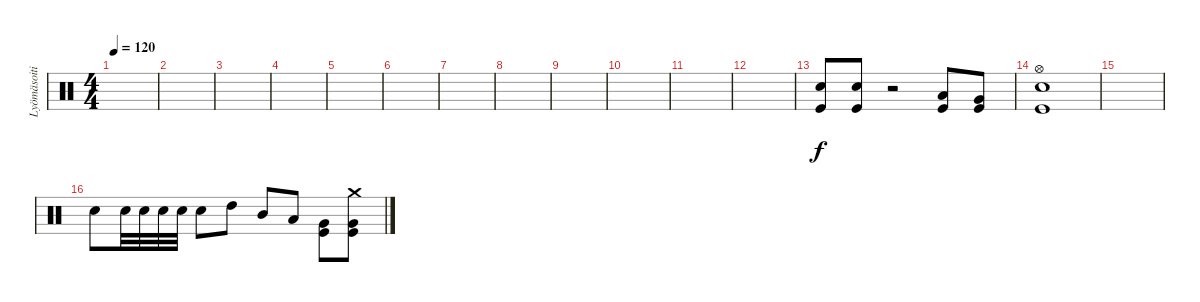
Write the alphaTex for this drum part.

\track ("Lyömäsoitin" "Lyömäsoiti") {instrument percussion}
\staff {score}
\articulation defaults
\ts (4 4)
\tempo 120
\clef neutral
\ks c
|
|
|
|
|
|
|
|
|
|
|
|
("Snare (hit) 2" "Kick (hit)").8 ("Snare (hit) 2" "Kick (hit)").8 r.2 ("Low Tom (hit)" "Kick (hit)").8 ("Very Low Tom (hit)" "Kick (hit)").8 |
("Hi-Hat (open)" "Snare (hit) 2" "Kick (hit)").1 |
|
"Snare (hit) 2".8 "Snare (hit) 2".32 "Snare (hit) 2".32 "Snare (hit) 2".32 "Snare (hit) 2".32 "Snare (hit) 2".8 "High Tom (hit)".8 "Mid Tom (hit)".8 "Low Tom (hit)".8 ("Very Low Tom (hit)" "Kick (hit)").8 ("Crash medium (hit)" "Very Low Tom (hit)" "Kick (hit)").8
